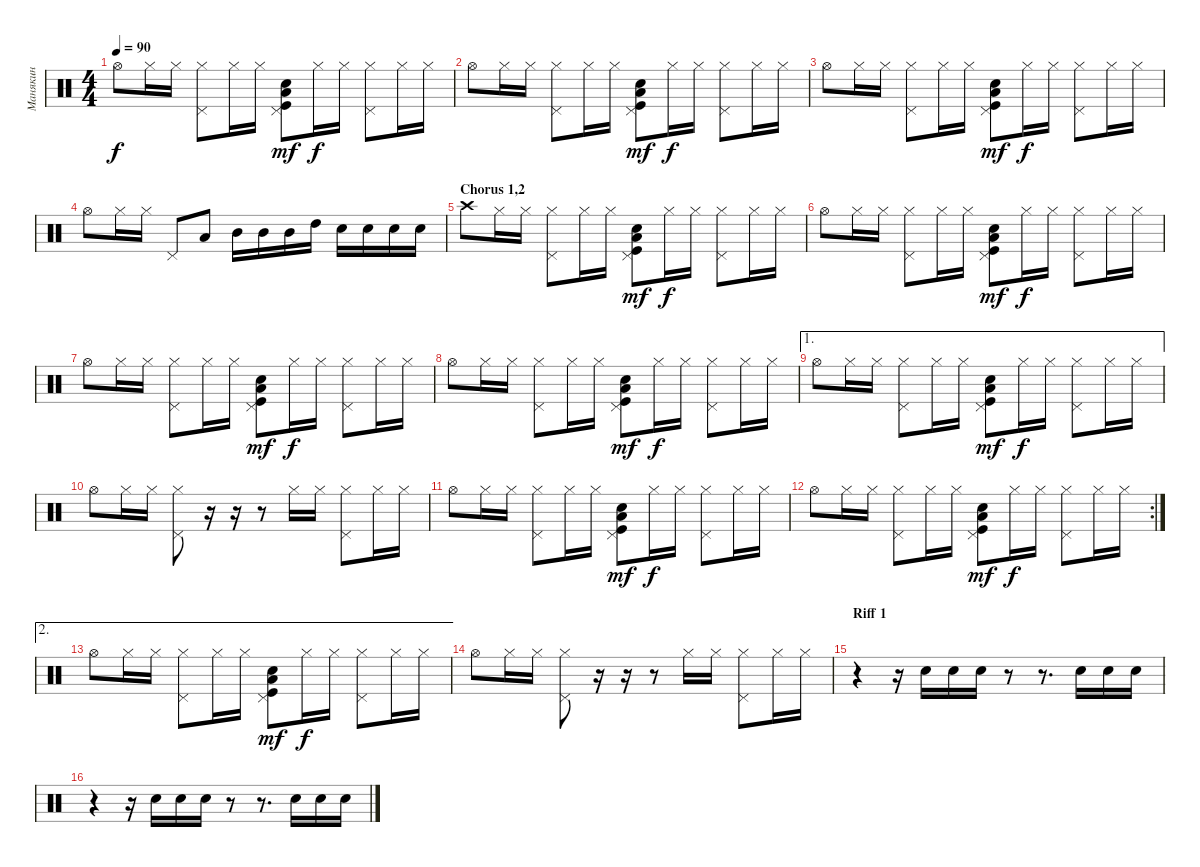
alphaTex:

\track ("Манякин" "Манякин") {instrument percussion}
\staff {score}
\articulation defaults
\ts (4 4)
\tempo 90
\clef neutral
\ks c "Hi-Hat (open)".8{dy f} "Hi-Hat (closed)".16 "Hi-Hat (closed)".16
("Hi-Hat (closed)" "Pedal Hi-Hat (hit)").8 "Hi-Hat (closed)".16 "Hi-Hat (closed)".16 ("Low Tom (hit)" "Electric Snare (hit)" "Kick (hit)" "Pedal Hi-Hat (hit)").8{dy mf} "Hi-Hat (closed)".16{dy f} "Hi-Hat (closed)".16 ("Pedal Hi-Hat (hit)" "Hi-Hat (closed)").8 "Hi-Hat (closed)".16 "Hi-Hat (closed)".16 |
"Hi-Hat (open)".8 "Hi-Hat (closed)".16 "Hi-Hat (closed)".16 ("Hi-Hat (closed)" "Pedal Hi-Hat (hit)").8 "Hi-Hat (closed)".16 "Hi-Hat (closed)".16 ("Low Tom (hit)" "Electric Snare (hit)" "Kick (hit)" "Pedal Hi-Hat (hit)").8{dy mf} "Hi-Hat (closed)".16{dy f} "Hi-Hat (closed)".16 ("Pedal Hi-Hat (hit)" "Hi-Hat (closed)").8 "Hi-Hat (closed)".16 "Hi-Hat (closed)".16 |
"Hi-Hat (open)".8 "Hi-Hat (closed)".16 "Hi-Hat (closed)".16 ("Hi-Hat (closed)" "Pedal Hi-Hat (hit)").8 "Hi-Hat (closed)".16 "Hi-Hat (closed)".16 ("Low Tom (hit)" "Electric Snare (hit)" "Kick (hit)" "Pedal Hi-Hat (hit)").8{dy mf} "Hi-Hat (closed)".16{dy f} "Hi-Hat (closed)".16 ("Pedal Hi-Hat (hit)" "Hi-Hat (closed)").8 "Hi-Hat (closed)".16 "Hi-Hat (closed)".16 |
"Hi-Hat (open)".8 "Hi-Hat (closed)".16 "Hi-Hat (closed)".16 "Pedal Hi-Hat (hit)".8 "Low Tom (hit)".8 "Mid Tom (hit)".16 "Mid Tom (hit)".16 "Mid Tom (hit)".16 "High Tom (hit)".16 "Electric Snare (hit)".16 "Electric Snare (hit)".16 "Electric Snare (hit)".16 "Electric Snare (hit)".16 |
\section ("" "Chorus 1,2")
"Crash high (hit)".8 "Hi-Hat (closed)".16 "Hi-Hat (closed)".16 ("Hi-Hat (closed)" "Pedal Hi-Hat (hit)").8 "Hi-Hat (closed)".16 "Hi-Hat (closed)".16 ("Low Tom (hit)" "Electric Snare (hit)" "Kick (hit)" "Pedal Hi-Hat (hit)").8{dy mf} "Hi-Hat (closed)".16{dy f} "Hi-Hat (closed)".16 ("Pedal Hi-Hat (hit)" "Hi-Hat (closed)").8 "Hi-Hat (closed)".16 "Hi-Hat (closed)".16 |
"Hi-Hat (open)".8 "Hi-Hat (closed)".16 "Hi-Hat (closed)".16 ("Hi-Hat (closed)" "Pedal Hi-Hat (hit)").8 "Hi-Hat (closed)".16 "Hi-Hat (closed)".16 ("Low Tom (hit)" "Electric Snare (hit)" "Kick (hit)" "Pedal Hi-Hat (hit)").8{dy mf} "Hi-Hat (closed)".16{dy f} "Hi-Hat (closed)".16 ("Pedal Hi-Hat (hit)" "Hi-Hat (closed)").8 "Hi-Hat (closed)".16 "Hi-Hat (closed)".16 |
"Hi-Hat (open)".8 "Hi-Hat (closed)".16 "Hi-Hat (closed)".16 ("Hi-Hat (closed)" "Pedal Hi-Hat (hit)").8 "Hi-Hat (closed)".16 "Hi-Hat (closed)".16 ("Low Tom (hit)" "Electric Snare (hit)" "Kick (hit)" "Pedal Hi-Hat (hit)").8{dy mf} "Hi-Hat (closed)".16{dy f} "Hi-Hat (closed)".16 ("Pedal Hi-Hat (hit)" "Hi-Hat (closed)").8 "Hi-Hat (closed)".16 "Hi-Hat (closed)".16 |
"Hi-Hat (open)".8 "Hi-Hat (closed)".16 "Hi-Hat (closed)".16 ("Hi-Hat (closed)" "Pedal Hi-Hat (hit)").8 "Hi-Hat (closed)".16 "Hi-Hat (closed)".16 ("Low Tom (hit)" "Electric Snare (hit)" "Kick (hit)" "Pedal Hi-Hat (hit)").8{dy mf} "Hi-Hat (closed)".16{dy f} "Hi-Hat (closed)".16 ("Pedal Hi-Hat (hit)" "Hi-Hat (closed)").8 "Hi-Hat (closed)".16 "Hi-Hat (closed)".16 |
\ae 1 "Hi-Hat (open)".8 "Hi-Hat (closed)".16 "Hi-Hat (closed)".16
("Hi-Hat (closed)" "Pedal Hi-Hat (hit)").8 "Hi-Hat (closed)".16 "Hi-Hat (closed)".16 ("Low Tom (hit)" "Electric Snare (hit)" "Kick (hit)" "Pedal Hi-Hat (hit)").8{dy mf} "Hi-Hat (closed)".16{dy f} "Hi-Hat (closed)".16 ("Pedal Hi-Hat (hit)" "Hi-Hat (closed)").8 "Hi-Hat (closed)".16 "Hi-Hat (closed)".16 |
"Hi-Hat (open)".8 "Hi-Hat (closed)".16 "Hi-Hat (closed)".16 ("Hi-Hat (closed)" "Pedal Hi-Hat (hit)").8 r.16 r.16 r.8 "Hi-Hat (closed)".16 "Hi-Hat (closed)".16 ("Pedal Hi-Hat (hit)" "Hi-Hat (closed)").8 "Hi-Hat (closed)".16 "Hi-Hat (closed)".16 |
"Hi-Hat (open)".8 "Hi-Hat (closed)".16 "Hi-Hat (closed)".16 ("Hi-Hat (closed)" "Pedal Hi-Hat (hit)").8 "Hi-Hat (closed)".16 "Hi-Hat (closed)".16 ("Low Tom (hit)" "Electric Snare (hit)" "Kick (hit)" "Pedal Hi-Hat (hit)").8{dy mf} "Hi-Hat (closed)".16{dy f} "Hi-Hat (closed)".16 ("Pedal Hi-Hat (hit)" "Hi-Hat (closed)").8 "Hi-Hat (closed)".16 "Hi-Hat (closed)".16 |
\rc 2 "Hi-Hat (open)".8 "Hi-Hat (closed)".16 "Hi-Hat (closed)".16
("Hi-Hat (closed)" "Pedal Hi-Hat (hit)").8 "Hi-Hat (closed)".16 "Hi-Hat (closed)".16 ("Low Tom (hit)" "Electric Snare (hit)" "Kick (hit)" "Pedal Hi-Hat (hit)").8{dy mf} "Hi-Hat (closed)".16{dy f} "Hi-Hat (closed)".16 ("Pedal Hi-Hat (hit)" "Hi-Hat (closed)").8 "Hi-Hat (closed)".16 "Hi-Hat (closed)".16 |
\ae 2 "Hi-Hat (open)".8 "Hi-Hat (closed)".16 "Hi-Hat (closed)".16
("Hi-Hat (closed)" "Pedal Hi-Hat (hit)").8 "Hi-Hat (closed)".16 "Hi-Hat (closed)".16 ("Low Tom (hit)" "Electric Snare (hit)" "Kick (hit)" "Pedal Hi-Hat (hit)").8{dy mf} "Hi-Hat (closed)".16{dy f} "Hi-Hat (closed)".16 ("Pedal Hi-Hat (hit)" "Hi-Hat (closed)").8 "Hi-Hat (closed)".16 "Hi-Hat (closed)".16 |
"Hi-Hat (open)".8 "Hi-Hat (closed)".16 "Hi-Hat (closed)".16 ("Hi-Hat (closed)" "Pedal Hi-Hat (hit)").8 r.16 r.16 r.8 "Hi-Hat (closed)".16 "Hi-Hat (closed)".16 ("Pedal Hi-Hat (hit)" "Hi-Hat (closed)").8 "Hi-Hat (closed)".16 "Hi-Hat (closed)".16 |
\section ("" "Riff 1")
r.4 r.16 "Snare (hit) 2".16 "Snare (hit) 2".16 "Snare (hit) 2".16 r.8 r.8{d} "Snare (hit) 2".16 "Snare (hit) 2".16 "Snare (hit) 2".16 |
r.4 r.16 "Snare (hit) 2".16 "Snare (hit) 2".16 "Snare (hit) 2".16 r.8 r.8{d} "Snare (hit) 2".16 "Snare (hit) 2".16 "Snare (hit) 2".16
